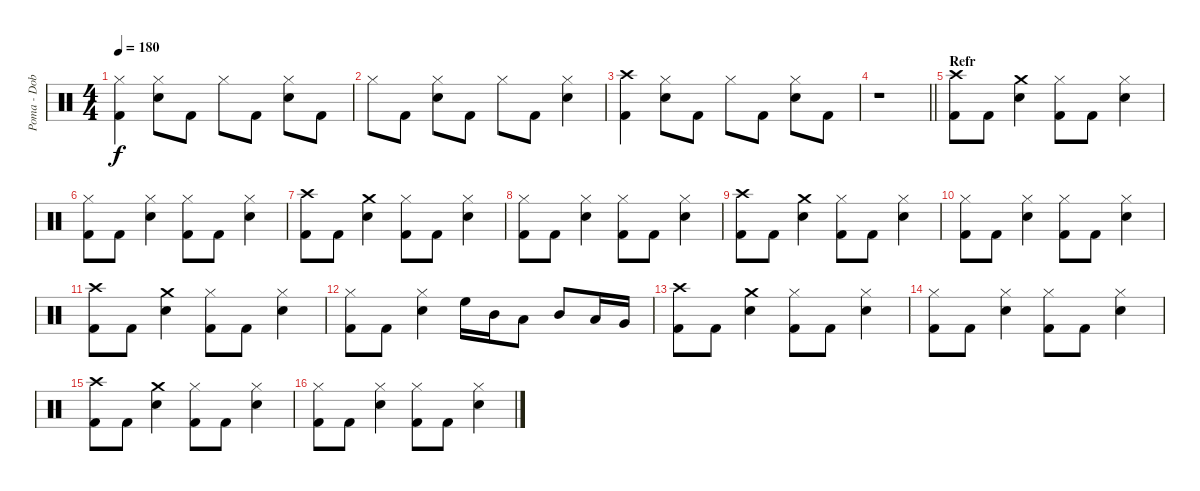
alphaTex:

\track ("Poma - Dob" "Poma - Dob") {instrument percussion}
\staff {score}
\articulation defaults
\ts (4 4)
\tempo 180
\clef neutral
\ks c
("Hi-Hat (closed)" "Kick (hit) 2").4{dy f} ("Hi-Hat (closed)" "Electric Snare (hit)").8 "Kick (hit) 2".8 "Hi-Hat (closed)".8 "Kick (hit) 2".8 ("Hi-Hat (closed)" "Electric Snare (hit)").8 "Kick (hit) 2".8 |
"Hi-Hat (closed)".8 "Kick (hit) 2".8 ("Hi-Hat (closed)" "Electric Snare (hit)").8 "Kick (hit) 2".8 "Hi-Hat (closed)".8 "Kick (hit) 2".8 ("Hi-Hat (closed)" "Electric Snare (hit)").4 |
("Crash high (hit)" "Kick (hit) 2").4 ("Hi-Hat (closed)" "Electric Snare (hit)").8 "Kick (hit) 2".8 "Hi-Hat (closed)".8 "Kick (hit) 2".8 ("Hi-Hat (closed)" "Electric Snare (hit)").8 "Kick (hit) 2".8 |
\barLineRight lightlight
r.1 |
\section ("" "Refr")
("Crash high (hit)" "Kick (hit) 2").8 "Kick (hit) 2".8 ("Crash medium (hit)" "Electric Snare (hit)").4 ("Hi-Hat (closed)" "Kick (hit) 2").8 "Kick (hit) 2".8 ("Hi-Hat (closed)" "Electric Snare (hit)").4 |
("Hi-Hat (closed)" "Kick (hit) 2").8 "Kick (hit) 2".8 ("Hi-Hat (closed)" "Electric Snare (hit)").4 ("Hi-Hat (closed)" "Kick (hit) 2").8 "Kick (hit) 2".8 ("Hi-Hat (closed)" "Electric Snare (hit)").4 |
("Crash high (hit)" "Kick (hit) 2").8 "Kick (hit) 2".8 ("Crash medium (hit)" "Electric Snare (hit)").4 ("Hi-Hat (closed)" "Kick (hit) 2").8 "Kick (hit) 2".8 ("Hi-Hat (closed)" "Electric Snare (hit)").4 |
("Hi-Hat (closed)" "Kick (hit) 2").8 "Kick (hit) 2".8 ("Hi-Hat (closed)" "Electric Snare (hit)").4 ("Hi-Hat (closed)" "Kick (hit) 2").8 "Kick (hit) 2".8 ("Hi-Hat (closed)" "Electric Snare (hit)").4 |
("Crash high (hit)" "Kick (hit) 2").8 "Kick (hit) 2".8 ("Crash medium (hit)" "Electric Snare (hit)").4 ("Hi-Hat (closed)" "Kick (hit) 2").8 "Kick (hit) 2".8 ("Hi-Hat (closed)" "Electric Snare (hit)").4 |
("Hi-Hat (closed)" "Kick (hit) 2").8 "Kick (hit) 2".8 ("Hi-Hat (closed)" "Electric Snare (hit)").4 ("Hi-Hat (closed)" "Kick (hit) 2").8 "Kick (hit) 2".8 ("Hi-Hat (closed)" "Electric Snare (hit)").4 |
("Crash high (hit)" "Kick (hit) 2").8 "Kick (hit) 2".8 ("Crash medium (hit)" "Electric Snare (hit)").4 ("Hi-Hat (closed)" "Kick (hit) 2").8 "Kick (hit) 2".8 ("Hi-Hat (closed)" "Electric Snare (hit)").4 |
("Hi-Hat (closed)" "Kick (hit) 2").8 "Kick (hit) 2".8 ("Hi-Hat (closed)" "Electric Snare (hit)").4 "High Floor Tom (hit)".16 "Mid Tom (hit)".16 "Low Tom (hit)".8 "Mid Tom (hit)".8 "Low Tom (hit)".16 "Very Low Tom (hit)".16 |
("Crash high (hit)" "Kick (hit) 2").8 "Kick (hit) 2".8 ("Crash medium (hit)" "Electric Snare (hit)").4 ("Hi-Hat (closed)" "Kick (hit) 2").8 "Kick (hit) 2".8 ("Hi-Hat (closed)" "Electric Snare (hit)").4 |
("Hi-Hat (closed)" "Kick (hit) 2").8 "Kick (hit) 2".8 ("Hi-Hat (closed)" "Electric Snare (hit)").4 ("Hi-Hat (closed)" "Kick (hit) 2").8 "Kick (hit) 2".8 ("Hi-Hat (closed)" "Electric Snare (hit)").4 |
("Crash high (hit)" "Kick (hit) 2").8 "Kick (hit) 2".8 ("Crash medium (hit)" "Electric Snare (hit)").4 ("Hi-Hat (closed)" "Kick (hit) 2").8 "Kick (hit) 2".8 ("Hi-Hat (closed)" "Electric Snare (hit)").4 |
("Hi-Hat (closed)" "Kick (hit) 2").8 "Kick (hit) 2".8 ("Hi-Hat (closed)" "Electric Snare (hit)").4 ("Hi-Hat (closed)" "Kick (hit) 2").8 "Kick (hit) 2".8 ("Hi-Hat (closed)" "Electric Snare (hit)").4
